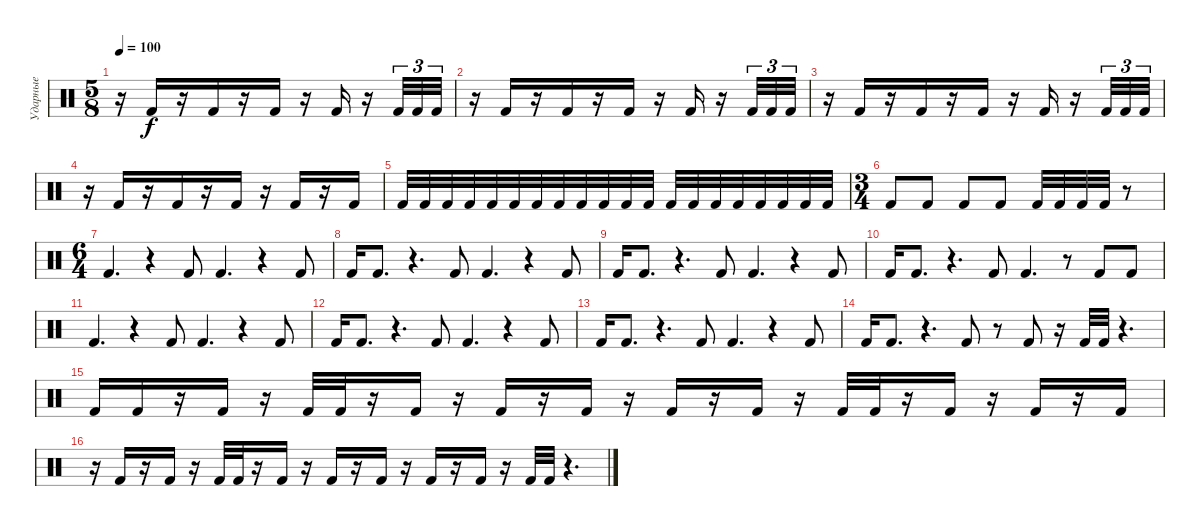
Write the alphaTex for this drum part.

\track ("Ударные" "Ударные") {instrument percussion}
\staff {score}
\articulation defaults
\ts (5 8)
\tempo 100
\clef neutral
\ks c
r.16{dy f} "Kick (hit) 2".16 r.16 "Kick (hit) 2".16 r.16 "Kick (hit) 2".16 r.16 "Kick (hit) 2".16 r.16 "Kick (hit) 2".32{tu (3 2)} "Kick (hit) 2".32{tu (3 2)} "Kick (hit) 2".32{tu (3 2)} |
r.16 "Kick (hit) 2".16 r.16 "Kick (hit) 2".16 r.16 "Kick (hit) 2".16 r.16 "Kick (hit) 2".16 r.16 "Kick (hit) 2".32{tu (3 2)} "Kick (hit) 2".32{tu (3 2)} "Kick (hit) 2".32{tu (3 2)} |
r.16 "Kick (hit) 2".16 r.16 "Kick (hit) 2".16 r.16 "Kick (hit) 2".16 r.16 "Kick (hit) 2".16 r.16 "Kick (hit) 2".32{tu (3 2)} "Kick (hit) 2".32{tu (3 2)} "Kick (hit) 2".32{tu (3 2)} |
r.16 "Kick (hit) 2".16 r.16 "Kick (hit) 2".16 r.16 "Kick (hit) 2".16 r.16 "Kick (hit) 2".16 r.16 "Kick (hit) 2".16 |
"Kick (hit) 2".32 "Kick (hit) 2".32 "Kick (hit) 2".32 "Kick (hit) 2".32 "Kick (hit) 2".32 "Kick (hit) 2".32 "Kick (hit) 2".32 "Kick (hit) 2".32 "Kick (hit) 2".32 "Kick (hit) 2".32 "Kick (hit) 2".32 "Kick (hit) 2".32 "Kick (hit) 2".32 "Kick (hit) 2".32 "Kick (hit) 2".32 "Kick (hit) 2".32 "Kick (hit) 2".32 "Kick (hit) 2".32 "Kick (hit) 2".32 "Kick (hit) 2".32 |
\ts (3 4)
"Kick (hit) 2".8 "Kick (hit) 2".8 "Kick (hit) 2".8 "Kick (hit) 2".8 "Kick (hit) 2".32 "Kick (hit) 2".32 "Kick (hit) 2".32 "Kick (hit) 2".32 r.8 |
\ts (6 4)
"Kick (hit) 2".4{d} r.4 "Kick (hit) 2".8 "Kick (hit) 2".4{d} r.4 "Kick (hit) 2".8 |
"Kick (hit) 2".16 "Kick (hit) 2".8{d} r.4{d} "Kick (hit) 2".8 "Kick (hit) 2".4{d} r.4 "Kick (hit) 2".8 |
"Kick (hit) 2".16 "Kick (hit) 2".8{d} r.4{d} "Kick (hit) 2".8 "Kick (hit) 2".4{d} r.4 "Kick (hit) 2".8 |
"Kick (hit) 2".16 "Kick (hit) 2".8{d} r.4{d} "Kick (hit) 2".8 "Kick (hit) 2".4{d} r.8 "Kick (hit) 2".8 "Kick (hit) 2".8 |
"Kick (hit) 2".4{d} r.4 "Kick (hit) 2".8 "Kick (hit) 2".4{d} r.4 "Kick (hit) 2".8 |
"Kick (hit) 2".16 "Kick (hit) 2".8{d} r.4{d} "Kick (hit) 2".8 "Kick (hit) 2".4{d} r.4 "Kick (hit) 2".8 |
"Kick (hit) 2".16 "Kick (hit) 2".8{d} r.4{d} "Kick (hit) 2".8 "Kick (hit) 2".4{d} r.4 "Kick (hit) 2".8 |
"Kick (hit) 2".16 "Kick (hit) 2".8{d} r.4{d} "Kick (hit) 2".8 r.8 "Kick (hit) 2".8 r.16 "Kick (hit) 2".32 "Kick (hit) 2".32 r.4{d} |
"Kick (hit) 2".16 "Kick (hit) 2".16 r.16 "Kick (hit) 2".16 r.16 "Kick (hit) 2".32 "Kick (hit) 2".32 r.16 "Kick (hit) 2".16 r.16 "Kick (hit) 2".16 r.16 "Kick (hit) 2".16 r.16 "Kick (hit) 2".16 r.16 "Kick (hit) 2".16 r.16 "Kick (hit) 2".32 "Kick (hit) 2".32 r.16 "Kick (hit) 2".16 r.16 "Kick (hit) 2".16 r.16 "Kick (hit) 2".16 |
r.16 "Kick (hit) 2".16 r.16 "Kick (hit) 2".16 r.16 "Kick (hit) 2".32 "Kick (hit) 2".32 r.16 "Kick (hit) 2".16 r.16 "Kick (hit) 2".16 r.16 "Kick (hit) 2".16 r.16 "Kick (hit) 2".16 r.16 "Kick (hit) 2".16 r.16 "Kick (hit) 2".32 "Kick (hit) 2".32 r.4{d}
